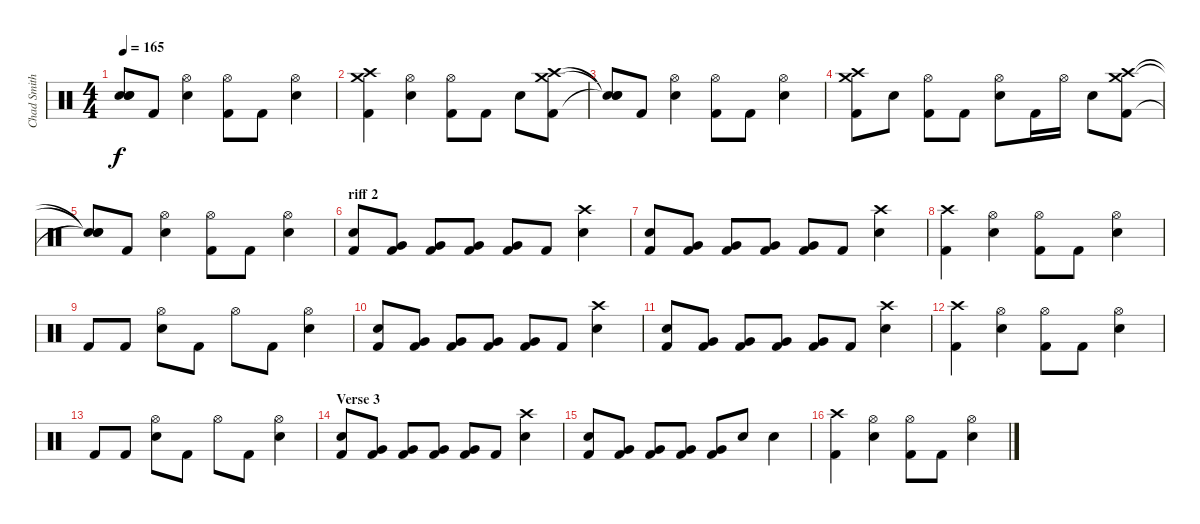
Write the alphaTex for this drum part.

\track ("Chad Smith - Drums" "Chad Smith") {instrument percussion}
\staff {score}
\articulation defaults
\ts (4 4)
\tempo 165
\clef neutral
\ks c
("Snare (hit)"{t} "Snare (hit)"{t} "Snare (hit)"{t}).8{dy f} "Kick (hit) 2".8 ("Snare (hit) 2" "Hi-Hat (open)").4 ("Kick (hit) 2" "Hi-Hat (open)").8 "Kick (hit) 2".8 ("Snare (hit) 2" "Hi-Hat (open)").4 |
("Crash medium (hit)" "Crash high (hit)" "Kick (hit) 2").4 ("Hi-Hat (open)" "Snare (hit) 2").4 ("Hi-Hat (open)" "Kick (hit) 2").8 "Kick (hit) 2".8 "Snare (hit) 2".8 ("Crash medium (hit)" "Kick (hit) 2" "Crash high (hit)").8 |
("Snare (hit)"{t} "Snare (hit)"{t} "Snare (hit)"{t}).8 "Kick (hit) 2".8 ("Hi-Hat (open)" "Snare (hit) 2").4 ("Hi-Hat (open)" "Kick (hit) 2").8 "Kick (hit) 2".8 ("Hi-Hat (open)" "Snare (hit) 2").4 |
("Crash medium (hit)" "Crash high (hit)" "Kick (hit) 2").8 "Snare (hit) 2".8 ("Kick (hit) 2" "Hi-Hat (open)").8 "Kick (hit) 2".8 ("Snare (hit) 2" "Hi-Hat (open)").8 "Kick (hit) 2".16 "Hi-Hat (open)".16 "Snare (hit) 2".8 ("Crash high (hit)" "Kick (hit) 2" "Crash medium (hit)").8 |
("Snare (hit)"{t} "Snare (hit)"{t} "Snare (hit)"{t}).8 "Kick (hit) 2".8 ("Snare (hit) 2" "Hi-Hat (open)").4 ("Kick (hit) 2" "Hi-Hat (open)").8 "Kick (hit) 2".8 ("Snare (hit) 2" "Hi-Hat (open)").4 |
\section ("" "riff 2")
("Kick (hit) 2" "Snare (hit) 2").8 ("Very Low Tom (hit)" "Kick (hit) 2").8 ("Very Low Tom (hit)" "Kick (hit) 2").8 ("Very Low Tom (hit)" "Kick (hit) 2").8 ("Very Low Tom (hit)" "Kick (hit) 2").8 "Kick (hit) 2".8 ("Crash high (hit)" "Snare (hit) 2").4 |
("Kick (hit) 2" "Snare (hit) 2").8 ("Very Low Tom (hit)" "Kick (hit) 2").8 ("Kick (hit) 2" "Very Low Tom (hit)").8 ("Very Low Tom (hit)" "Kick (hit) 2").8 ("Very Low Tom (hit)" "Kick (hit) 2").8 "Kick (hit) 2".8 ("Crash high (hit)" "Snare (hit) 2").4 |
("Crash high (hit)" "Kick (hit) 2").4 ("Hi-Hat (open)" "Snare (hit) 2").4 ("Hi-Hat (open)" "Kick (hit) 2").8 "Kick (hit) 2".8 ("Hi-Hat (open)" "Snare (hit) 2").4 |
"Kick (hit) 2".8 "Kick (hit) 2".8 ("Hi-Hat (open)" "Snare (hit) 2").8 "Kick (hit) 2".8 "Hi-Hat (open)".8 "Kick (hit) 2".8 ("Snare (hit) 2" "Hi-Hat (open)").4 |
("Kick (hit) 2" "Snare (hit) 2").8 ("Very Low Tom (hit)" "Kick (hit) 2").8 ("Kick (hit) 2" "Very Low Tom (hit)").8 ("Very Low Tom (hit)" "Kick (hit) 2").8 ("Very Low Tom (hit)" "Kick (hit) 2").8 "Kick (hit) 2".8 ("Crash high (hit)" "Snare (hit) 2").4 |
("Snare (hit) 2" "Kick (hit) 2").8 ("Very Low Tom (hit)" "Kick (hit) 2").8 ("Very Low Tom (hit)" "Kick (hit) 2").8 ("Very Low Tom (hit)" "Kick (hit) 2").8 ("Very Low Tom (hit)" "Kick (hit) 2").8 "Kick (hit) 2".8 ("Crash high (hit)" "Snare (hit) 2").4 |
("Crash high (hit)" "Kick (hit) 2").4 ("Hi-Hat (open)" "Snare (hit) 2").4 ("Hi-Hat (open)" "Kick (hit) 2").8 "Kick (hit) 2".8 ("Hi-Hat (open)" "Snare (hit) 2").4 |
"Kick (hit) 2".8 "Kick (hit) 2".8 ("Hi-Hat (open)" "Snare (hit) 2").8 "Kick (hit) 2".8 "Hi-Hat (open)".8 "Kick (hit) 2".8 ("Snare (hit) 2" "Hi-Hat (open)").4 |
\section ("" "Verse 3")
("Kick (hit) 2" "Snare (hit) 2").8 ("Very Low Tom (hit)" "Kick (hit) 2").8 ("Kick (hit) 2" "Very Low Tom (hit)").8 ("Very Low Tom (hit)" "Kick (hit) 2").8 ("Very Low Tom (hit)" "Kick (hit) 2").8 "Kick (hit) 2".8 ("Crash high (hit)" "Snare (hit) 2").4 |
("Snare (hit) 2" "Kick (hit) 2").8 ("Very Low Tom (hit)" "Kick (hit) 2").8 ("Very Low Tom (hit)" "Kick (hit) 2").8 ("Very Low Tom (hit)" "Kick (hit) 2").8 ("Very Low Tom (hit)" "Kick (hit) 2").8 "Snare (hit) 2".8 "Snare (hit) 2".4 |
("Kick (hit) 2" "Crash high (hit)").4 ("Snare (hit) 2" "Hi-Hat (open)").4 ("Hi-Hat (open)" "Kick (hit) 2").8 "Kick (hit) 2".8 ("Snare (hit) 2" "Hi-Hat (open)").4
